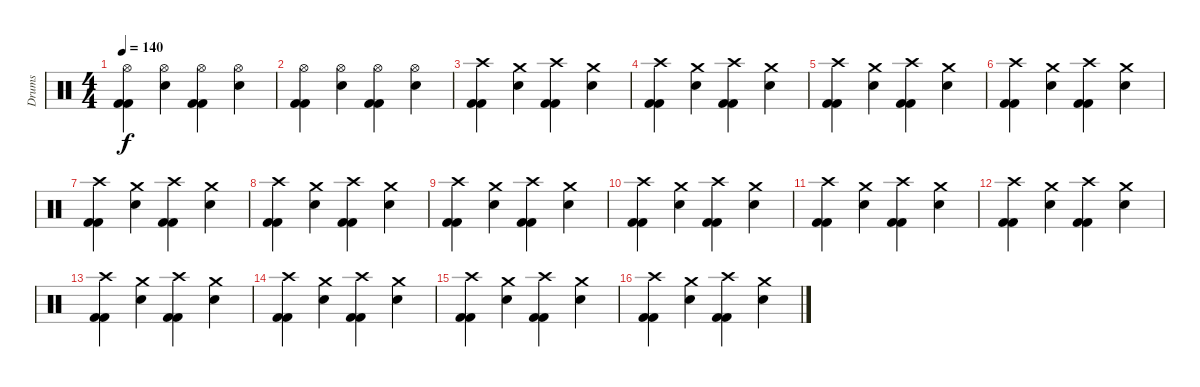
\track ("Drums" "Drums") {instrument percussion}
\staff {score}
\articulation defaults
\ts (4 4)
\tempo 140
\clef neutral
\ks c
("Hi-Hat (open)" "Kick (hit) 2" "Kick (hit) 2").4{dy f} ("Hi-Hat (open)" "Electric Snare (hit)").4 ("Hi-Hat (open)" "Kick (hit) 2" "Kick (hit) 2").4 ("Hi-Hat (open)" "Electric Snare (hit)").4 |
("Hi-Hat (open)" "Kick (hit) 2" "Kick (hit) 2").4 ("Hi-Hat (open)" "Electric Snare (hit)").4 ("Hi-Hat (open)" "Kick (hit) 2" "Kick (hit) 2").4 ("Hi-Hat (open)" "Electric Snare (hit)").4 |
("Crash high (hit)" "Kick (hit) 2" "Kick (hit) 2").4 ("Crash medium (hit)" "Electric Snare (hit)").4 ("Crash high (hit)" "Kick (hit) 2" "Kick (hit) 2").4 ("Crash medium (hit)" "Electric Snare (hit)").4 |
("Crash high (hit)" "Kick (hit) 2" "Kick (hit) 2").4 ("Crash medium (hit)" "Electric Snare (hit)").4 ("Crash high (hit)" "Kick (hit) 2" "Kick (hit) 2").4 ("Crash medium (hit)" "Electric Snare (hit)").4 |
("Crash high (hit)" "Kick (hit) 2" "Kick (hit) 2").4 ("Crash medium (hit)" "Electric Snare (hit)").4 ("Crash high (hit)" "Kick (hit) 2" "Kick (hit) 2").4 ("Crash medium (hit)" "Electric Snare (hit)").4 |
("Crash high (hit)" "Kick (hit) 2" "Kick (hit) 2").4 ("Crash medium (hit)" "Electric Snare (hit)").4 ("Crash high (hit)" "Kick (hit) 2" "Kick (hit) 2").4 ("Crash medium (hit)" "Electric Snare (hit)").4 |
("Crash high (hit)" "Kick (hit) 2" "Kick (hit) 2").4 ("Crash medium (hit)" "Electric Snare (hit)").4 ("Crash high (hit)" "Kick (hit) 2" "Kick (hit) 2").4 ("Crash medium (hit)" "Electric Snare (hit)").4 |
("Crash high (hit)" "Kick (hit) 2" "Kick (hit) 2").4 ("Crash medium (hit)" "Electric Snare (hit)").4 ("Crash high (hit)" "Kick (hit) 2" "Kick (hit) 2").4 ("Crash medium (hit)" "Electric Snare (hit)").4 |
("Crash high (hit)" "Kick (hit) 2" "Kick (hit) 2").4 ("Crash medium (hit)" "Electric Snare (hit)").4 ("Crash high (hit)" "Kick (hit) 2" "Kick (hit) 2").4 ("Crash medium (hit)" "Electric Snare (hit)").4 |
("Crash high (hit)" "Kick (hit) 2" "Kick (hit) 2").4 ("Crash medium (hit)" "Electric Snare (hit)").4 ("Crash high (hit)" "Kick (hit) 2" "Kick (hit) 2").4 ("Crash medium (hit)" "Electric Snare (hit)").4 |
("Crash high (hit)" "Kick (hit) 2" "Kick (hit) 2").4 ("Crash medium (hit)" "Electric Snare (hit)").4 ("Crash high (hit)" "Kick (hit) 2" "Kick (hit) 2").4 ("Crash medium (hit)" "Electric Snare (hit)").4 |
("Crash high (hit)" "Kick (hit) 2" "Kick (hit) 2").4 ("Crash medium (hit)" "Electric Snare (hit)").4 ("Crash high (hit)" "Kick (hit) 2" "Kick (hit) 2").4 ("Crash medium (hit)" "Electric Snare (hit)").4 |
("Crash high (hit)" "Kick (hit) 2" "Kick (hit) 2").4 ("Crash medium (hit)" "Electric Snare (hit)").4 ("Crash high (hit)" "Kick (hit) 2" "Kick (hit) 2").4 ("Crash medium (hit)" "Electric Snare (hit)").4 |
("Crash high (hit)" "Kick (hit) 2" "Kick (hit) 2").4 ("Crash medium (hit)" "Electric Snare (hit)").4 ("Crash high (hit)" "Kick (hit) 2" "Kick (hit) 2").4 ("Crash medium (hit)" "Electric Snare (hit)").4 |
("Crash high (hit)" "Kick (hit) 2" "Kick (hit) 2").4 ("Crash medium (hit)" "Electric Snare (hit)").4 ("Crash high (hit)" "Kick (hit) 2" "Kick (hit) 2").4 ("Crash medium (hit)" "Electric Snare (hit)").4 |
("Crash high (hit)" "Kick (hit) 2" "Kick (hit) 2").4 ("Crash medium (hit)" "Electric Snare (hit)").4 ("Crash high (hit)" "Kick (hit) 2" "Kick (hit) 2").4 ("Crash medium (hit)" "Electric Snare (hit)").4
